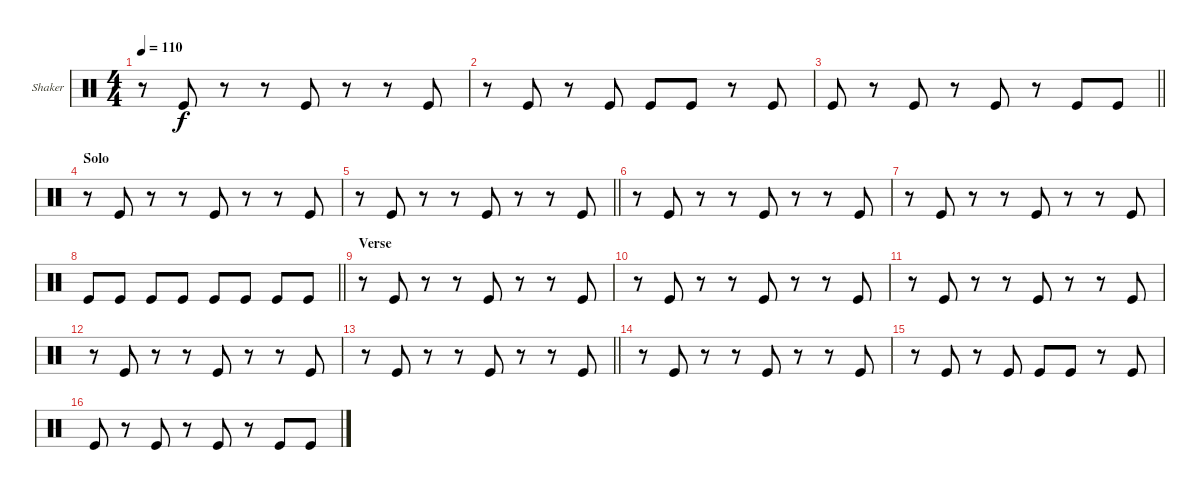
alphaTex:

\bracketExtendMode groupsimilarinstruments
\firstSystemTrackNameOrientation horizontal
\otherSystemsTrackNameOrientation horizontal
\track ("Shaker" "Shaker") {instrument percussion}
\staff {score}
\articulation defaults
\ts (4 4)
\tempo 110
\clef neutral
\ks c
r.8{dy f} "Kick (hit)".8 r.8 r.8 "Kick (hit)".8 r.8 r.8 "Kick (hit)".8 |
r.8 "Kick (hit)".8 r.8 "Kick (hit)".8 "Kick (hit)".8 "Kick (hit)".8 r.8 "Kick (hit)".8 |
\barLineRight lightlight "Kick (hit)".8
r.8 "Kick (hit)".8 r.8 "Kick (hit)".8 r.8 "Kick (hit)".8 "Kick (hit)".8 |
\section ("" "Solo")
r.8 "Kick (hit)".8 r.8 r.8 "Kick (hit)".8 r.8 r.8 "Kick (hit)".8 |
\barLineRight lightlight
r.8 "Kick (hit)".8 r.8 r.8 "Kick (hit)".8 r.8 r.8 "Kick (hit)".8 |
r.8 "Kick (hit)".8 r.8 r.8 "Kick (hit)".8 r.8 r.8 "Kick (hit)".8 |
r.8 "Kick (hit)".8 r.8 r.8 "Kick (hit)".8 r.8 r.8 "Kick (hit)".8 |
\barLineRight lightlight "Kick (hit)".8 "Kick (hit)".8 "Kick (hit)".8 "Kick (hit)".8 "Kick (hit)".8 "Kick (hit)".8 "Kick (hit)".8 "Kick (hit)".8
|
\section ("" "Verse")
r.8 "Kick (hit)".8 r.8 r.8 "Kick (hit)".8 r.8 r.8 "Kick (hit)".8 |
r.8 "Kick (hit)".8 r.8 r.8 "Kick (hit)".8 r.8 r.8 "Kick (hit)".8 |
r.8 "Kick (hit)".8 r.8 r.8 "Kick (hit)".8 r.8 r.8 "Kick (hit)".8 |
r.8 "Kick (hit)".8 r.8 r.8 "Kick (hit)".8 r.8 r.8 "Kick (hit)".8 |
\barLineRight lightlight
r.8 "Kick (hit)".8 r.8 r.8 "Kick (hit)".8 r.8 r.8 "Kick (hit)".8 |
r.8 "Kick (hit)".8 r.8 r.8 "Kick (hit)".8 r.8 r.8 "Kick (hit)".8 |
r.8 "Kick (hit)".8 r.8 "Kick (hit)".8 "Kick (hit)".8 "Kick (hit)".8 r.8 "Kick (hit)".8 |
"Kick (hit)".8 r.8 "Kick (hit)".8 r.8 "Kick (hit)".8 r.8 "Kick (hit)".8 "Kick (hit)".8
